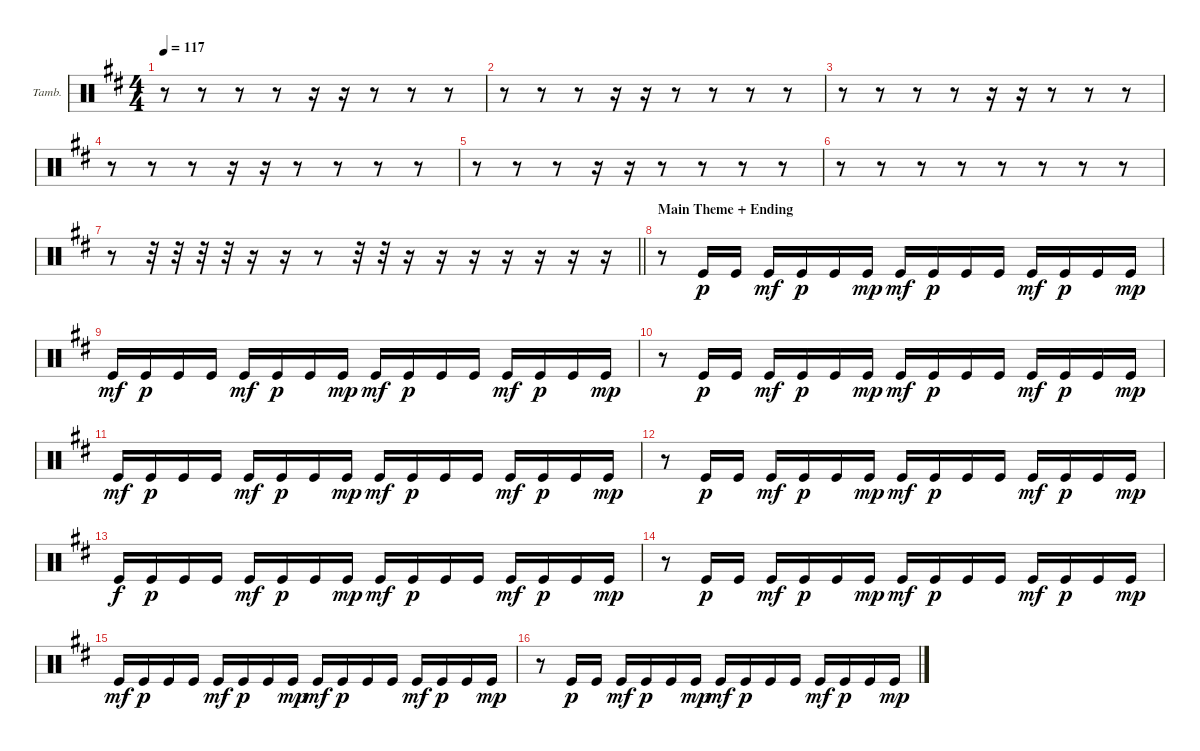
\bracketExtendMode groupsimilarinstruments
\firstSystemTrackNameOrientation horizontal
\otherSystemsTrackNameOrientation horizontal
\track ("Tambourine" "Tamb.") {instrument percussion}
\staff {score}
\articulation defaults
\ts (4 4)
\tempo 117
\clef neutral
\ks d
r.8{dy mp} r.8 r.8 r.8 r.16 r.16 r.8 r.8 r.8 |
r.8 r.8 r.8 r.16 r.16 r.8 r.8 r.8 r.8 |
r.8 r.8 r.8 r.8 r.16 r.16 r.8 r.8 r.8 |
r.8 r.8 r.8 r.16 r.16 r.8 r.8 r.8 r.8 |
r.8 r.8 r.8 r.16 r.16 r.8 r.8 r.8 r.8 |
r.8 r.8 r.8 r.8 r.8 r.8 r.8 r.8 |
\barLineRight lightlight
r.8 r.32 r.32 r.32 r.32 r.16 r.16 r.8 r.32 r.32 r.16 r.16 r.16 r.16 r.16 r.16 r.16 |
\section ("" "Main Theme + Ending")
r.8 "Kick (hit)".16{dy p} "Kick (hit)".16 "Kick (hit)".16{dy mf} "Kick (hit)".16{dy p} "Kick (hit)".16 "Kick (hit)".16{dy mp} "Kick (hit)".16{dy mf} "Kick (hit)".16{dy p} "Kick (hit)".16 "Kick (hit)".16 "Kick (hit)".16{dy mf} "Kick (hit)".16{dy p} "Kick (hit)".16 "Kick (hit)".16{dy mp} |
"Kick (hit)".16{dy mf} "Kick (hit)".16{dy p} "Kick (hit)".16 "Kick (hit)".16 "Kick (hit)".16{dy mf} "Kick (hit)".16{dy p} "Kick (hit)".16 "Kick (hit)".16{dy mp} "Kick (hit)".16{dy mf} "Kick (hit)".16{dy p} "Kick (hit)".16 "Kick (hit)".16 "Kick (hit)".16{dy mf} "Kick (hit)".16{dy p} "Kick (hit)".16 "Kick (hit)".16{dy mp} |
r.8 "Kick (hit)".16{dy p} "Kick (hit)".16 "Kick (hit)".16{dy mf} "Kick (hit)".16{dy p} "Kick (hit)".16 "Kick (hit)".16{dy mp} "Kick (hit)".16{dy mf} "Kick (hit)".16{dy p} "Kick (hit)".16 "Kick (hit)".16 "Kick (hit)".16{dy mf} "Kick (hit)".16{dy p} "Kick (hit)".16 "Kick (hit)".16{dy mp} |
"Kick (hit)".16{dy mf} "Kick (hit)".16{dy p} "Kick (hit)".16 "Kick (hit)".16 "Kick (hit)".16{dy mf} "Kick (hit)".16{dy p} "Kick (hit)".16 "Kick (hit)".16{dy mp} "Kick (hit)".16{dy mf} "Kick (hit)".16{dy p} "Kick (hit)".16 "Kick (hit)".16 "Kick (hit)".16{dy mf} "Kick (hit)".16{dy p} "Kick (hit)".16 "Kick (hit)".16{dy mp} |
r.8 "Kick (hit)".16{dy p} "Kick (hit)".16 "Kick (hit)".16{dy mf} "Kick (hit)".16{dy p} "Kick (hit)".16 "Kick (hit)".16{dy mp} "Kick (hit)".16{dy mf} "Kick (hit)".16{dy p} "Kick (hit)".16 "Kick (hit)".16 "Kick (hit)".16{dy mf} "Kick (hit)".16{dy p} "Kick (hit)".16 "Kick (hit)".16{dy mp} |
"Kick (hit)".16{dy f} "Kick (hit)".16{dy p} "Kick (hit)".16 "Kick (hit)".16 "Kick (hit)".16{dy mf} "Kick (hit)".16{dy p} "Kick (hit)".16 "Kick (hit)".16{dy mp} "Kick (hit)".16{dy mf} "Kick (hit)".16{dy p} "Kick (hit)".16 "Kick (hit)".16 "Kick (hit)".16{dy mf} "Kick (hit)".16{dy p} "Kick (hit)".16 "Kick (hit)".16{dy mp} |
r.8 "Kick (hit)".16{dy p} "Kick (hit)".16 "Kick (hit)".16{dy mf} "Kick (hit)".16{dy p} "Kick (hit)".16 "Kick (hit)".16{dy mp} "Kick (hit)".16{dy mf} "Kick (hit)".16{dy p} "Kick (hit)".16 "Kick (hit)".16 "Kick (hit)".16{dy mf} "Kick (hit)".16{dy p} "Kick (hit)".16 "Kick (hit)".16{dy mp} |
"Kick (hit)".16{dy mf} "Kick (hit)".16{dy p} "Kick (hit)".16 "Kick (hit)".16 "Kick (hit)".16{dy mf} "Kick (hit)".16{dy p} "Kick (hit)".16 "Kick (hit)".16{dy mp} "Kick (hit)".16{dy mf} "Kick (hit)".16{dy p} "Kick (hit)".16 "Kick (hit)".16 "Kick (hit)".16{dy mf} "Kick (hit)".16{dy p} "Kick (hit)".16 "Kick (hit)".16{dy mp} |
r.8 "Kick (hit)".16{dy p} "Kick (hit)".16 "Kick (hit)".16{dy mf} "Kick (hit)".16{dy p} "Kick (hit)".16 "Kick (hit)".16{dy mp} "Kick (hit)".16{dy mf} "Kick (hit)".16{dy p} "Kick (hit)".16 "Kick (hit)".16 "Kick (hit)".16{dy mf} "Kick (hit)".16{dy p} "Kick (hit)".16 "Kick (hit)".16{dy mp}
